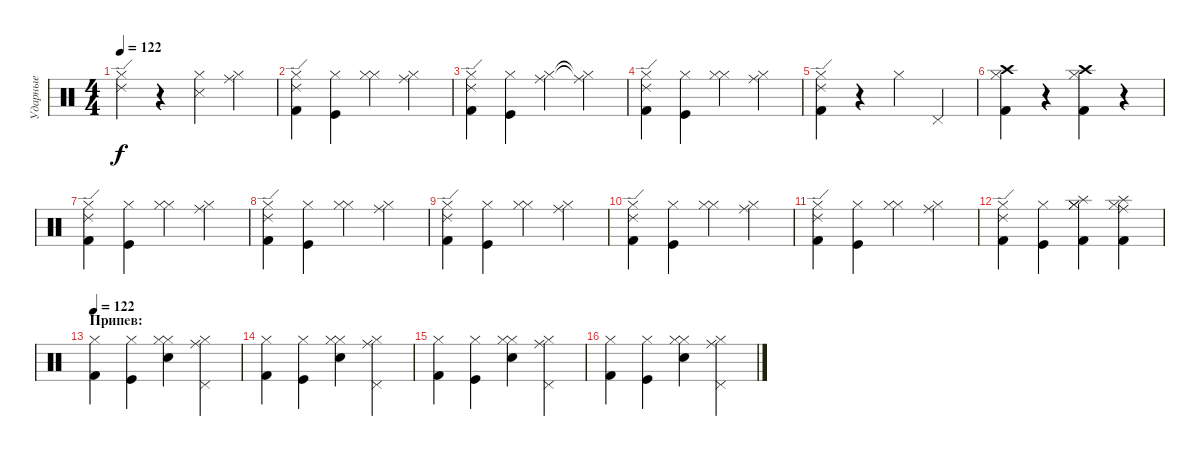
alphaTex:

\track ("Ударные" "Ударные") {instrument percussion}
\staff {score}
\articulation defaults
\ts (4 4)
\tempo 122
\clef neutral
\ks c
("Hi-Hat (closed)" "Ride (edge) 2").4{dy f} r.4 ("Hi-Hat (closed)" "Snare (side stick) 3").4 ("Hi-Hat (closed)" "Ride (middle)").4 |
("Hi-Hat (closed)" "Ride (edge) 2" "Kick (hit) 2").4 ("Hi-Hat (closed)" "Kick (hit)").4 ("Hi-Hat (closed)" "Hi-Hat (closed)").4 ("Hi-Hat (closed)" "Ride (middle)").4 |
("Hi-Hat (closed)" "Ride (edge) 2" "Kick (hit) 2").4 ("Hi-Hat (closed)" "Kick (hit)").4 ("Hi-Hat (closed)" "Ride (middle)").4 ("Hi-Hat (closed)"{t} "Ride (middle)"{t}).4 |
("Hi-Hat (closed)" "Ride (edge) 2" "Kick (hit) 2").4 ("Hi-Hat (closed)" "Kick (hit)").4 ("Hi-Hat (closed)" "Hi-Hat (closed)").4 ("Hi-Hat (closed)" "Ride (middle)").4 |
("Hi-Hat (closed)" "Ride (edge) 2" "Kick (hit) 2").4 r.4 "Hi-Hat (closed)".4 "Pedal Hi-Hat (hit)".4 |
("Hi-Hat (closed)" "Crash high (hit)" "Kick (hit) 2").4 r.4 ("Hi-Hat (closed)" "Crash high (hit)" "Kick (hit) 2").4 r.4 |
("Hi-Hat (closed)" "Ride (edge) 2" "Kick (hit) 2").4 ("Hi-Hat (closed)" "Kick (hit)").4 ("Hi-Hat (closed)" "Hi-Hat (closed)").4 ("Hi-Hat (closed)" "Ride (middle)").4 |
("Hi-Hat (closed)" "Ride (edge) 2" "Kick (hit) 2").4 ("Hi-Hat (closed)" "Kick (hit)").4 ("Hi-Hat (closed)" "Hi-Hat (closed)").4 ("Hi-Hat (closed)" "Ride (middle)").4 |
("Hi-Hat (closed)" "Ride (edge) 2" "Kick (hit) 2").4 ("Hi-Hat (closed)" "Kick (hit)").4 ("Hi-Hat (closed)" "Hi-Hat (closed)").4 ("Hi-Hat (closed)" "Ride (middle)").4 |
("Hi-Hat (closed)" "Ride (edge) 2" "Kick (hit) 2").4 ("Hi-Hat (closed)" "Kick (hit)").4 ("Hi-Hat (closed)" "Hi-Hat (closed)").4 ("Hi-Hat (closed)" "Ride (middle)").4 |
("Hi-Hat (closed)" "Ride (edge) 2" "Kick (hit) 2").4 ("Hi-Hat (closed)" "Kick (hit)").4 ("Hi-Hat (closed)" "Hi-Hat (closed)").4 ("Hi-Hat (closed)" "Ride (middle)").4 |
("Hi-Hat (closed)" "Ride (edge) 2" "Kick (hit) 2").4 ("Hi-Hat (closed)" "Kick (hit)").4 ("Splash (hit)" "Hi-Hat (closed)" "Hi-Hat (closed)" "Kick (hit) 2").4 ("Splash (hit)" "Hi-Hat (closed)" "Ride (middle)" "Kick (hit) 2").4 |
\section ("" "Припев:")
\tempo 122
("Hi-Hat (closed)" "Kick (hit) 2").4 ("Hi-Hat (closed)" "Kick (hit)").4 ("Hi-Hat (closed)" "Hi-Hat (closed)" "Electric Snare (hit)").4 ("Hi-Hat (closed)" "Ride (middle)" "Pedal Hi-Hat (hit)").4 |
("Hi-Hat (closed)" "Kick (hit) 2").4 ("Hi-Hat (closed)" "Kick (hit)").4 ("Hi-Hat (closed)" "Hi-Hat (closed)" "Electric Snare (hit)").4 ("Hi-Hat (closed)" "Ride (middle)" "Pedal Hi-Hat (hit)").4 |
("Hi-Hat (closed)" "Kick (hit) 2").4 ("Hi-Hat (closed)" "Kick (hit)").4 ("Hi-Hat (closed)" "Hi-Hat (closed)" "Electric Snare (hit)").4 ("Hi-Hat (closed)" "Ride (middle)" "Pedal Hi-Hat (hit)").4 |
("Hi-Hat (closed)" "Kick (hit) 2").4 ("Hi-Hat (closed)" "Kick (hit)").4 ("Hi-Hat (closed)" "Hi-Hat (closed)" "Electric Snare (hit)").4 ("Hi-Hat (closed)" "Ride (middle)" "Pedal Hi-Hat (hit)").4
